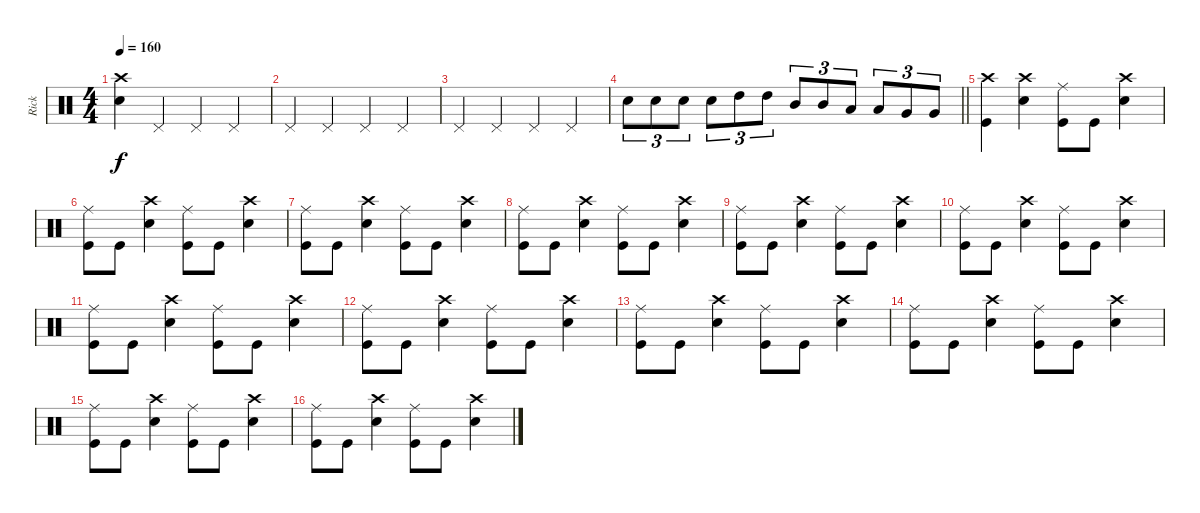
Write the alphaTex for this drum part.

\track ("Rick" "Rick") {instrument percussion}
\staff {score}
\articulation defaults
\ts (4 4)
\tempo 160
\clef neutral
\ks c
("Crash high (hit)" "Snare (hit) 2").4{dy f} "Pedal Hi-Hat (hit)".4 "Pedal Hi-Hat (hit)".4 "Pedal Hi-Hat (hit)".4 |
"Pedal Hi-Hat (hit)".4 "Pedal Hi-Hat (hit)".4 "Pedal Hi-Hat (hit)".4 "Pedal Hi-Hat (hit)".4 |
"Pedal Hi-Hat (hit)".4 "Pedal Hi-Hat (hit)".4 "Pedal Hi-Hat (hit)".4 "Pedal Hi-Hat (hit)".4 |
\barLineRight lightlight "Snare (hit) 2".8{tu (3 2)} "Snare (hit) 2".8{tu (3 2)} "Snare (hit) 2".8{tu (3 2)} "Snare (hit) 2".8{tu (3 2)} "High Tom (hit)".8{tu (3 2)} "High Tom (hit)".8{tu (3 2)} "Mid Tom (hit)".8{tu (3 2)} "Mid Tom (hit)".8{tu (3 2)} "Low Tom (hit)".8{tu (3 2)} "Low Tom (hit)".8{tu (3 2)} "Very Low Tom (hit)".8{tu (3 2)} "Very Low Tom (hit)".8{tu (3 2)}
|
("Crash high (hit)" "Kick (hit)").4 ("Crash high (hit)" "Snare (hit) 2").4 ("Ride (middle)" "Kick (hit)").8 "Kick (hit)".8 ("Crash high (hit)" "Snare (hit) 2").4 |
("Ride (middle)" "Kick (hit)").8 "Kick (hit)".8 ("Crash high (hit)" "Snare (hit) 2").4 ("Ride (middle)" "Kick (hit)").8 "Kick (hit)".8 ("Crash high (hit)" "Snare (hit) 2").4 |
("Ride (middle)" "Kick (hit)").8 "Kick (hit)".8 ("Crash high (hit)" "Snare (hit) 2").4 ("Ride (middle)" "Kick (hit)").8 "Kick (hit)".8 ("Crash high (hit)" "Snare (hit) 2").4 |
("Ride (middle)" "Kick (hit)").8 "Kick (hit)".8 ("Crash high (hit)" "Snare (hit) 2").4 ("Ride (middle)" "Kick (hit)").8 "Kick (hit)".8 ("Crash high (hit)" "Snare (hit) 2").4 |
("Ride (middle)" "Kick (hit)").8 "Kick (hit)".8 ("Crash high (hit)" "Snare (hit) 2").4 ("Ride (middle)" "Kick (hit)").8 "Kick (hit)".8 ("Crash high (hit)" "Snare (hit) 2").4 |
("Ride (middle)" "Kick (hit)").8 "Kick (hit)".8 ("Crash high (hit)" "Snare (hit) 2").4 ("Ride (middle)" "Kick (hit)").8 "Kick (hit)".8 ("Crash high (hit)" "Snare (hit) 2").4 |
("Ride (middle)" "Kick (hit)").8 "Kick (hit)".8 ("Crash high (hit)" "Snare (hit) 2").4 ("Ride (middle)" "Kick (hit)").8 "Kick (hit)".8 ("Crash high (hit)" "Snare (hit) 2").4 |
("Ride (middle)" "Kick (hit)").8 "Kick (hit)".8 ("Crash high (hit)" "Snare (hit) 2").4 ("Ride (middle)" "Kick (hit)").8 "Kick (hit)".8 ("Crash high (hit)" "Snare (hit) 2").4 |
("Ride (middle)" "Kick (hit)").8 "Kick (hit)".8 ("Crash high (hit)" "Snare (hit) 2").4 ("Ride (middle)" "Kick (hit)").8 "Kick (hit)".8 ("Crash high (hit)" "Snare (hit) 2").4 |
("Ride (middle)" "Kick (hit)").8 "Kick (hit)".8 ("Crash high (hit)" "Snare (hit) 2").4 ("Ride (middle)" "Kick (hit)").8 "Kick (hit)".8 ("Crash high (hit)" "Snare (hit) 2").4 |
("Ride (middle)" "Kick (hit)").8 "Kick (hit)".8 ("Crash high (hit)" "Snare (hit) 2").4 ("Ride (middle)" "Kick (hit)").8 "Kick (hit)".8 ("Crash high (hit)" "Snare (hit) 2").4 |
("Ride (middle)" "Kick (hit)").8 "Kick (hit)".8 ("Crash high (hit)" "Snare (hit) 2").4 ("Ride (middle)" "Kick (hit)").8 "Kick (hit)".8 ("Crash high (hit)" "Snare (hit) 2").4
